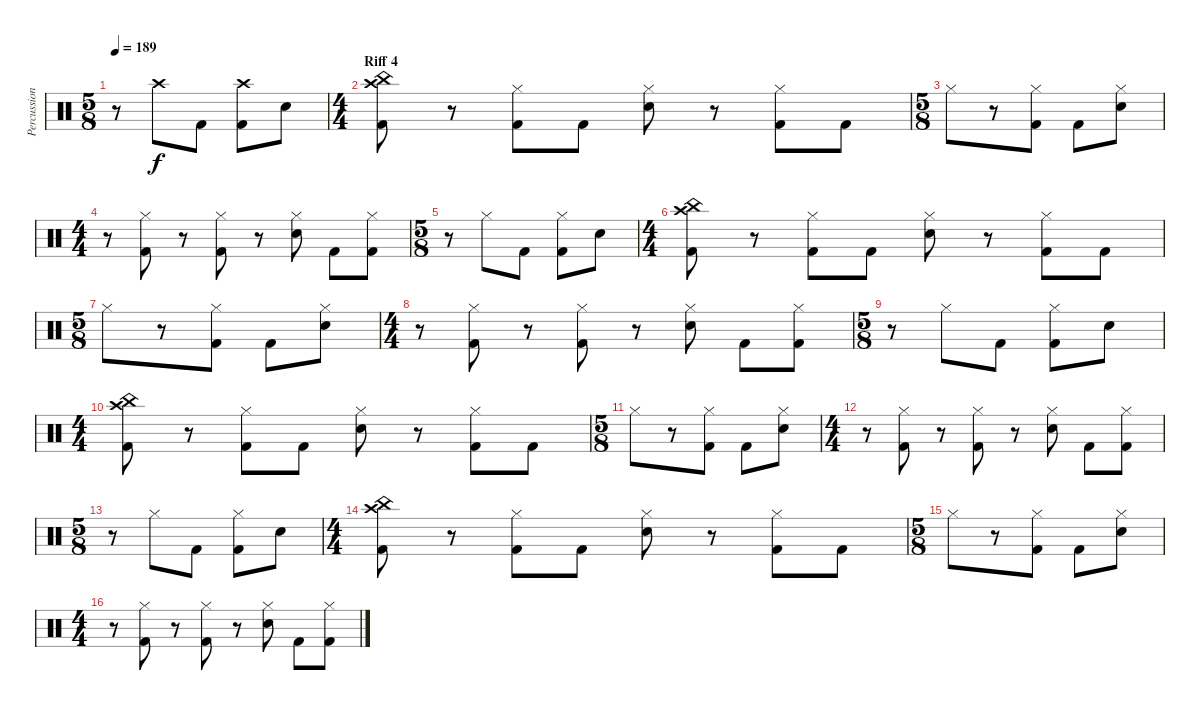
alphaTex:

\track ("Percussion" "Percussion") {instrument percussion}
\staff {score}
\articulation defaults
\ts (5 8)
\tempo 189
\clef neutral
\ks c
r.8{dy f} "Crash high (hit)".8 "Kick (hit) 2".8 ("Crash high (hit)" "Kick (hit) 2").8 "Electric Snare (hit)".8 |
\ts (4 4)
\section ("" "Riff 4")
("China (hit)" "Crash high (hit)" "Kick (hit) 2").8 r.8 ("Hi-Hat (closed)" "Kick (hit) 2").8 "Kick (hit) 2".8 ("Hi-Hat (closed)" "Electric Snare (hit)").8 r.8 ("Hi-Hat (closed)" "Kick (hit) 2").8 "Kick (hit) 2".8 |
\ts (5 8)
"Hi-Hat (closed)".8 r.8 ("Hi-Hat (closed)" "Kick (hit) 2").8 "Kick (hit) 2".8 ("Hi-Hat (closed)" "Electric Snare (hit)").8 |
\ts (4 4)
r.8 ("Hi-Hat (closed)" "Kick (hit) 2").8 r.8 ("Hi-Hat (closed)" "Kick (hit) 2").8 r.8 ("Hi-Hat (closed)" "Electric Snare (hit)").8 "Kick (hit) 2".8 ("Hi-Hat (closed)" "Kick (hit) 2").8 |
\ts (5 8)
r.8 "Hi-Hat (closed)".8 "Kick (hit) 2".8 ("Hi-Hat (closed)" "Kick (hit) 2").8 "Electric Snare (hit)".8 |
\ts (4 4)
("China (hit)" "Crash high (hit)" "Kick (hit) 2").8 r.8 ("Hi-Hat (closed)" "Kick (hit) 2").8 "Kick (hit) 2".8 ("Hi-Hat (closed)" "Electric Snare (hit)").8 r.8 ("Hi-Hat (closed)" "Kick (hit) 2").8 "Kick (hit) 2".8 |
\ts (5 8)
"Hi-Hat (closed)".8 r.8 ("Hi-Hat (closed)" "Kick (hit) 2").8 "Kick (hit) 2".8 ("Hi-Hat (closed)" "Electric Snare (hit)").8 |
\ts (4 4)
r.8 ("Hi-Hat (closed)" "Kick (hit) 2").8 r.8 ("Hi-Hat (closed)" "Kick (hit) 2").8 r.8 ("Hi-Hat (closed)" "Electric Snare (hit)").8 "Kick (hit) 2".8 ("Hi-Hat (closed)" "Kick (hit) 2").8 |
\ts (5 8)
r.8 "Hi-Hat (closed)".8 "Kick (hit) 2".8 ("Hi-Hat (closed)" "Kick (hit) 2").8 "Electric Snare (hit)".8 |
\ts (4 4)
("China (hit)" "Crash high (hit)" "Kick (hit) 2").8 r.8 ("Hi-Hat (closed)" "Kick (hit) 2").8 "Kick (hit) 2".8 ("Hi-Hat (closed)" "Electric Snare (hit)").8 r.8 ("Hi-Hat (closed)" "Kick (hit) 2").8 "Kick (hit) 2".8 |
\ts (5 8)
"Hi-Hat (closed)".8 r.8 ("Hi-Hat (closed)" "Kick (hit) 2").8 "Kick (hit) 2".8 ("Hi-Hat (closed)" "Electric Snare (hit)").8 |
\ts (4 4)
r.8 ("Hi-Hat (closed)" "Kick (hit) 2").8 r.8 ("Hi-Hat (closed)" "Kick (hit) 2").8 r.8 ("Hi-Hat (closed)" "Electric Snare (hit)").8 "Kick (hit) 2".8 ("Hi-Hat (closed)" "Kick (hit) 2").8 |
\ts (5 8)
r.8 "Hi-Hat (closed)".8 "Kick (hit) 2".8 ("Hi-Hat (closed)" "Kick (hit) 2").8 "Electric Snare (hit)".8 |
\ts (4 4)
("China (hit)" "Crash high (hit)" "Kick (hit) 2").8 r.8 ("Hi-Hat (closed)" "Kick (hit) 2").8 "Kick (hit) 2".8 ("Hi-Hat (closed)" "Electric Snare (hit)").8 r.8 ("Hi-Hat (closed)" "Kick (hit) 2").8 "Kick (hit) 2".8 |
\ts (5 8)
"Hi-Hat (closed)".8 r.8 ("Hi-Hat (closed)" "Kick (hit) 2").8 "Kick (hit) 2".8 ("Hi-Hat (closed)" "Electric Snare (hit)").8 |
\ts (4 4)
r.8 ("Hi-Hat (closed)" "Kick (hit) 2").8 r.8 ("Hi-Hat (closed)" "Kick (hit) 2").8 r.8 ("Hi-Hat (closed)" "Electric Snare (hit)").8 "Kick (hit) 2".8 ("Hi-Hat (closed)" "Kick (hit) 2").8
